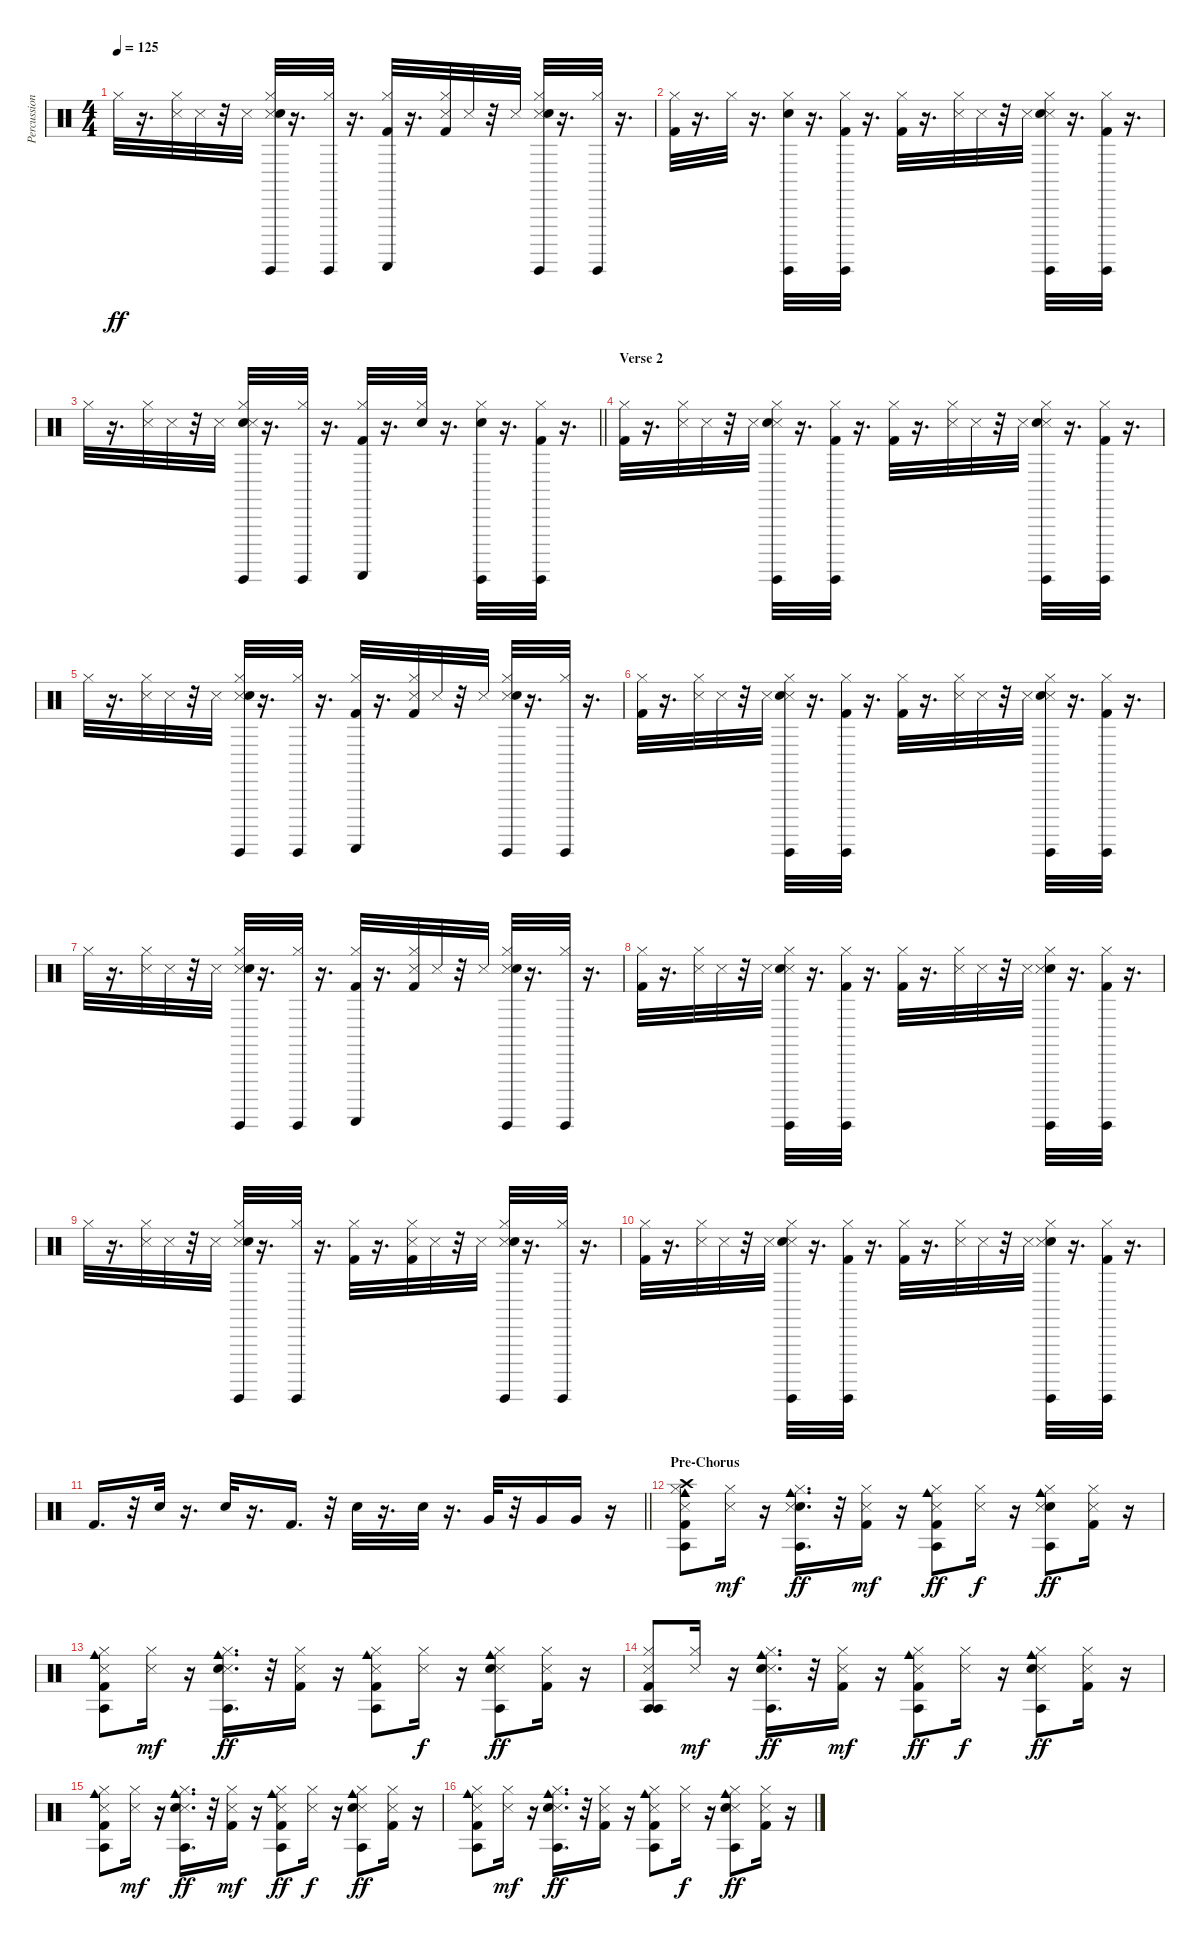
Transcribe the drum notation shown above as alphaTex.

\track ("Percussion" "Percussion") {instrument percussion}
\staff {score}
\articulation defaults
\ts (4 4)
\tempo 125
\clef neutral
\ks c "Hi-Hat (closed)".32{dy ff}
r.16{d} ("Snare (side stick) 3" "Hi-Hat (closed)").32 "Snare (side stick) 3".32 r.32 "Snare (side stick) 3".32 ("Guiro (hit)" "Hi-Hat (closed)" "Snare (side stick) 3" "Snare (hit) 2").32 r.16{d} ("Guiro (hit)" "Hi-Hat (closed)").32 r.16{d} ("Kick (hit) 2" "Guiro (scrap-return)" "Hi-Hat (closed)").32 r.16{d} ("Snare (side stick) 3" "Hi-Hat (closed)" "Kick (hit) 2").32 "Snare (side stick) 3".32 r.32 "Snare (side stick) 3".32 ("Guiro (hit)" "Hi-Hat (closed)" "Snare (side stick) 3" "Snare (hit) 2").32 r.16{d} ("Guiro (hit)" "Hi-Hat (closed)").32 r.16{d} |
("Hi-Hat (closed)" "Kick (hit) 2").32 r.16{d} "Hi-Hat (closed)".32 r.16{d} ("Guiro (hit)" "Hi-Hat (closed)" "Snare (hit) 2").32 r.16{d} ("Guiro (hit)" "Hi-Hat (closed)" "Kick (hit) 2").32 r.16{d} ("Hi-Hat (closed)" "Kick (hit) 2").32 r.16{d} ("Hi-Hat (closed)" "Snare (side stick) 3").32 "Snare (side stick) 3".32 r.32 "Snare (side stick) 3".32 ("Guiro (hit)" "Hi-Hat (closed)" "Snare (side stick) 3" "Snare (hit) 2").32 r.16{d} ("Kick (hit) 2" "Guiro (hit)" "Hi-Hat (closed)").32 r.16{d} |
\barLineRight lightlight "Hi-Hat (closed)".32
r.16{d} ("Hi-Hat (closed)" "Snare (side stick) 3").32 "Snare (side stick) 3".32 r.32 "Snare (side stick) 3".32 ("Guiro (hit)" "Hi-Hat (closed)" "Snare (hit) 2" "Snare (side stick) 3").32 r.16{d} ("Guiro (hit)" "Hi-Hat (closed)").32 r.16{d} ("Hi-Hat (closed)" "Kick (hit) 2" "Guiro (scrap-return)").32 r.16{d} ("Electric Snare (hit)" "Hi-Hat (closed)").32 r.16{d} ("Hi-Hat (closed)" "Electric Snare (hit)" "Guiro (hit)").32 r.16{d} ("Guiro (hit)" "Hi-Hat (closed)" "Kick (hit) 2").32 r.16{d} |
\section ("" "Verse 2")
("Hi-Hat (closed)" "Kick (hit) 2").32 r.16{d} ("Hi-Hat (closed)" "Snare (side stick) 3").32 "Snare (side stick) 3".32 r.32 "Snare (side stick) 3".32 ("Guiro (hit)" "Snare (side stick) 3" "Hi-Hat (closed)" "Snare (hit) 2").32 r.16{d} ("Guiro (hit)" "Hi-Hat (closed)" "Kick (hit) 2").32 r.16{d} ("Hi-Hat (closed)" "Kick (hit) 2").32 r.16{d} ("Snare (side stick) 3" "Hi-Hat (closed)").32 "Snare (side stick) 3".32 r.32 "Snare (side stick) 3".32 ("Snare (side stick) 3" "Guiro (hit)" "Hi-Hat (closed)" "Snare (hit) 2").32 r.16{d} ("Guiro (hit)" "Hi-Hat (closed)" "Kick (hit) 2").32 r.16{d} |
"Hi-Hat (closed)".32 r.16{d} ("Snare (side stick) 3" "Hi-Hat (closed)").32 "Snare (side stick) 3".32 r.32 "Snare (side stick) 3".32 ("Guiro (hit)" "Hi-Hat (closed)" "Snare (side stick) 3" "Snare (hit) 2").32 r.16{d} ("Guiro (hit)" "Hi-Hat (closed)").32 r.16{d} ("Kick (hit) 2" "Guiro (scrap-return)" "Hi-Hat (closed)").32 r.16{d} ("Snare (side stick) 3" "Hi-Hat (closed)" "Kick (hit) 2").32 "Snare (side stick) 3".32 r.32 "Snare (side stick) 3".32 ("Guiro (hit)" "Hi-Hat (closed)" "Snare (side stick) 3" "Snare (hit) 2").32 r.16{d} ("Guiro (hit)" "Hi-Hat (closed)").32 r.16{d} |
("Hi-Hat (closed)" "Kick (hit) 2").32 r.16{d} ("Hi-Hat (closed)" "Snare (side stick) 3").32 "Snare (side stick) 3".32 r.32 "Snare (side stick) 3".32 ("Guiro (hit)" "Snare (side stick) 3" "Hi-Hat (closed)" "Snare (hit) 2").32 r.16{d} ("Guiro (hit)" "Hi-Hat (closed)" "Kick (hit) 2").32 r.16{d} ("Hi-Hat (closed)" "Kick (hit) 2").32 r.16{d} ("Snare (side stick) 3" "Hi-Hat (closed)").32 "Snare (side stick) 3".32 r.32 "Snare (side stick) 3".32 ("Snare (side stick) 3" "Guiro (hit)" "Hi-Hat (closed)" "Snare (hit) 2").32 r.16{d} ("Guiro (hit)" "Hi-Hat (closed)" "Kick (hit) 2").32 r.16{d} |
"Hi-Hat (closed)".32 r.16{d} ("Snare (side stick) 3" "Hi-Hat (closed)").32 "Snare (side stick) 3".32 r.32 "Snare (side stick) 3".32 ("Guiro (hit)" "Hi-Hat (closed)" "Snare (side stick) 3" "Snare (hit) 2").32 r.16{d} ("Guiro (hit)" "Hi-Hat (closed)").32 r.16{d} ("Kick (hit) 2" "Guiro (scrap-return)" "Hi-Hat (closed)").32 r.16{d} ("Snare (side stick) 3" "Hi-Hat (closed)" "Kick (hit) 2").32 "Snare (side stick) 3".32 r.32 "Snare (side stick) 3".32 ("Guiro (hit)" "Hi-Hat (closed)" "Snare (side stick) 3" "Snare (hit) 2").32 r.16{d} ("Guiro (hit)" "Hi-Hat (closed)").32 r.16{d} |
("Hi-Hat (closed)" "Kick (hit) 2").32 r.16{d} ("Hi-Hat (closed)" "Snare (side stick) 3").32 "Snare (side stick) 3".32 r.32 "Snare (side stick) 3".32 ("Guiro (hit)" "Hi-Hat (closed)" "Snare (side stick) 3" "Snare (hit) 2").32 r.16{d} ("Guiro (hit)" "Hi-Hat (closed)" "Kick (hit) 2").32 r.16{d} ("Hi-Hat (closed)" "Kick (hit) 2").32 r.16{d} ("Snare (side stick) 3" "Hi-Hat (closed)").32 "Snare (side stick) 3".32 r.32 "Snare (side stick) 3".32 ("Snare (hit) 2" "Hi-Hat (closed)" "Guiro (hit)" "Snare (side stick) 3").32 r.16{d} ("Kick (hit) 2" "Guiro (hit)" "Hi-Hat (closed)").32 r.16{d} |
"Hi-Hat (closed)".32 r.16{d} ("Hi-Hat (closed)" "Snare (side stick) 3").32 "Snare (side stick) 3".32 r.32 "Snare (side stick) 3".32 ("Hi-Hat (closed)" "Guiro (hit)" "Snare (side stick) 3" "Snare (hit) 2").32 r.16{d} ("Hi-Hat (closed)" "Guiro (hit)").32 r.16{d} ("Kick (hit) 2" "Hi-Hat (closed)").32 r.16{d} ("Hi-Hat (closed)" "Snare (side stick) 3" "Kick (hit) 2").32 "Snare (side stick) 3".32 r.32 "Snare (side stick) 3".32 ("Hi-Hat (closed)" "Guiro (hit)" "Snare (side stick) 3" "Snare (hit) 2").32 r.16{d} ("Hi-Hat (closed)" "Guiro (hit)").32 r.16{d} |
("Hi-Hat (closed)" "Kick (hit) 2").32 r.16{d} ("Hi-Hat (closed)" "Snare (side stick) 3").32 "Snare (side stick) 3".32 r.32 "Snare (side stick) 3".32 ("Guiro (hit)" "Hi-Hat (closed)" "Snare (side stick) 3" "Snare (hit) 2").32 r.16{d} ("Guiro (hit)" "Hi-Hat (closed)" "Kick (hit) 2").32 r.16{d} ("Hi-Hat (closed)" "Kick (hit) 2").32 r.16{d} ("Snare (side stick) 3" "Hi-Hat (closed)").32 "Snare (side stick) 3".32 r.32 "Snare (side stick) 3".32 ("Snare (hit) 2" "Hi-Hat (closed)" "Guiro (hit)" "Snare (side stick) 3").32 r.16{d} ("Kick (hit) 2" "Guiro (hit)" "Hi-Hat (closed)").32 r.16{d} |
\barLineRight lightlight "Kick (hit) 2".16{d}
r.32 "Electric Snare (hit)".32 r.16{d} "Electric Snare (hit)".32 r.16{d} "Kick (hit) 2".16{d} r.32 "Electric Snare (hit)".32 r.16{d} "Electric Snare (hit)".32 r.16{d} "Very Low Tom (hit)".32 r.32 "Very Low Tom (hit)".16 "Very Low Tom (hit)".16 r.16 |
\section ("" "Pre-Chorus")
("Kick (hit) 2" "Hi-Hat (closed)" "Agogo tow (hit)" "Crash high (hit)" "Cowbell medium (hit)" "Snare (side stick) 3").8 ("Hi-Hat (closed)" "Snare (side stick) 3").16{dy mf} r.16 ("Snare (hit) 2" "Hi-Hat (closed)" "Agogo tow (hit)" "Cowbell medium (hit)" "Snare (side stick) 3").16{d dy ff} r.32 ("Kick (hit) 2" "Hi-Hat (closed)" "Snare (side stick) 3").16{dy mf} r.16 ("Kick (hit) 2" "Hi-Hat (closed)" "Agogo tow (hit)" "Cowbell medium (hit)" "Snare (side stick) 3").8{dy ff} ("Hi-Hat (closed)" "Snare (side stick) 3").16{dy f} r.16 ("Snare (hit) 2" "Hi-Hat (closed)" "Agogo tow (hit)" "Cowbell medium (hit)" "Snare (side stick) 3").8{dy ff} ("Kick (hit) 2" "Hi-Hat (closed)" "Snare (side stick) 3").16 r.16 |
("Cowbell medium (hit)" "Snare (side stick) 3" "Hi-Hat (closed)" "Agogo tow (hit)" "Kick (hit) 2").8 ("Snare (side stick) 3" "Hi-Hat (closed)").16{dy mf} r.16 ("Cowbell medium (hit)" "Snare (side stick) 3" "Hi-Hat (closed)" "Agogo tow (hit)" "Snare (hit) 2").16{d dy ff} r.32 ("Snare (side stick) 3" "Hi-Hat (closed)" "Kick (hit) 2").16 r.16 ("Cowbell medium (hit)" "Snare (side stick) 3" "Hi-Hat (closed)" "Agogo tow (hit)" "Kick (hit) 2").8 ("Snare (side stick) 3" "Hi-Hat (closed)").16{dy f} r.16 ("Cowbell medium (hit)" "Snare (side stick) 3" "Hi-Hat (closed)" "Agogo tow (hit)" "Snare (hit) 2").8{dy ff} ("Snare (side stick) 3" "Hi-Hat (closed)" "Kick (hit) 2").16 r.16 |
("Snare (side stick) 3" "Agogo tow (hit)" "Kick (hit) 2" "Agogo tow (hit)" "Hi-Hat (closed)").8 ("Snare (side stick) 3" "Hi-Hat (closed)").16{dy mf} r.16 ("Snare (side stick) 3" "Agogo tow (hit)" "Snare (hit) 2" "Cowbell medium (hit)" "Hi-Hat (closed)").16{d dy ff} r.32 ("Snare (side stick) 3" "Kick (hit) 2" "Hi-Hat (closed)").16{dy mf} r.16 ("Snare (side stick) 3" "Agogo tow (hit)" "Kick (hit) 2" "Cowbell medium (hit)" "Hi-Hat (closed)").8{dy ff} ("Snare (side stick) 3" "Hi-Hat (closed)").16{dy f} r.16 ("Snare (side stick) 3" "Agogo tow (hit)" "Snare (hit) 2" "Cowbell medium (hit)" "Hi-Hat (closed)").8{dy ff} ("Snare (side stick) 3" "Kick (hit) 2" "Hi-Hat (closed)").16 r.16 |
("Cowbell medium (hit)" "Agogo tow (hit)" "Snare (side stick) 3" "Kick (hit) 2" "Hi-Hat (closed)").8 ("Snare (side stick) 3" "Hi-Hat (closed)").16{dy mf} r.16 ("Cowbell medium (hit)" "Agogo tow (hit)" "Snare (side stick) 3" "Snare (hit) 2" "Hi-Hat (closed)").16{d dy ff} r.32 ("Snare (side stick) 3" "Kick (hit) 2" "Hi-Hat (closed)").16{dy mf} r.16 ("Cowbell medium (hit)" "Agogo tow (hit)" "Snare (side stick) 3" "Kick (hit) 2" "Hi-Hat (closed)").8{dy ff} ("Snare (side stick) 3" "Hi-Hat (closed)").16{dy f} r.16 ("Cowbell medium (hit)" "Agogo tow (hit)" "Snare (side stick) 3" "Snare (hit) 2" "Hi-Hat (closed)").8{dy ff} ("Snare (side stick) 3" "Kick (hit) 2" "Hi-Hat (closed)").16 r.16 |
("Hi-Hat (closed)" "Cowbell medium (hit)" "Snare (side stick) 3" "Agogo tow (hit)" "Kick (hit) 2").8 ("Hi-Hat (closed)" "Snare (side stick) 3").16{dy mf} r.16 ("Hi-Hat (closed)" "Cowbell medium (hit)" "Snare (side stick) 3" "Agogo tow (hit)" "Snare (hit) 2").16{d dy ff} r.32 ("Hi-Hat (closed)" "Snare (side stick) 3" "Kick (hit) 2").16 r.16 ("Hi-Hat (closed)" "Cowbell medium (hit)" "Snare (side stick) 3" "Agogo tow (hit)" "Kick (hit) 2").8 ("Hi-Hat (closed)" "Snare (side stick) 3").16{dy f} r.16 ("Hi-Hat (closed)" "Cowbell medium (hit)" "Snare (side stick) 3" "Agogo tow (hit)" "Snare (hit) 2").8{dy ff} ("Hi-Hat (closed)" "Snare (side stick) 3" "Kick (hit) 2").16 r.16
